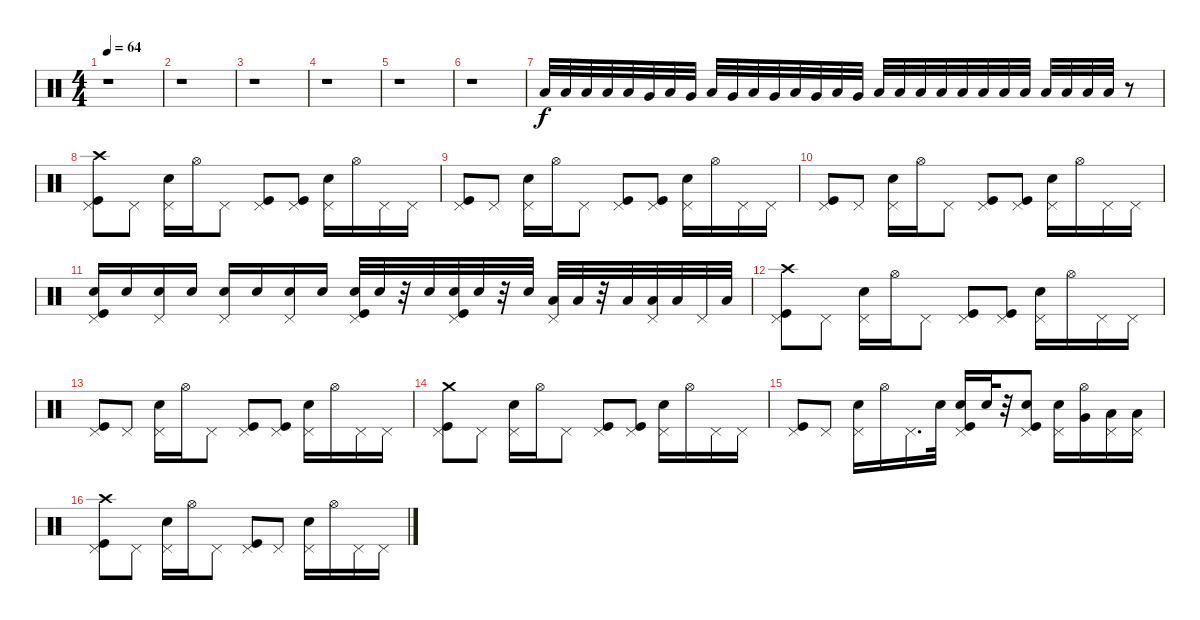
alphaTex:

\track "" {instrument percussion}
\staff {score}
\articulation defaults
\ts (4 4)
\tempo 64
\clef neutral
\ks c
r.1{dy f} |
r.1 |
r.1 |
r.1 |
r.1 |
r.1 |
"Low Floor Tom (hit)".32 "Low Floor Tom (hit)".32 "Low Floor Tom (hit)".32 "Low Floor Tom (hit)".32 "Low Floor Tom (hit)".32 "Very Low Tom (hit)".32 "Low Floor Tom (hit)".32 "Very Low Tom (hit)".32 "Low Floor Tom (hit)".32 "Very Low Tom (hit)".32 "Low Floor Tom (hit)".32 "Very Low Tom (hit)".32 "Low Floor Tom (hit)".32 "Very Low Tom (hit)".32 "Low Floor Tom (hit)".32 "Very Low Tom (hit)".32 "Low Floor Tom (hit)".32 "Low Tom (hit)".32 "Low Floor Tom (hit)".32 "Low Tom (hit)".32 "Low Floor Tom (hit)".32 "Low Tom (hit)".32 "Low Floor Tom (hit)".32 "Low Tom (hit)".32 "Low Floor Tom (hit)".32 "Low Tom (hit)".32 "Low Floor Tom (hit)".32 "Low Tom (hit)".32 r.8 |
("Pedal Hi-Hat (hit)" "Kick (hit)" "Crash high (hit)").8 "Pedal Hi-Hat (hit)".8 ("Pedal Hi-Hat (hit)" "Snare (hit) 2").16 "Hi-Hat (open)".16 "Pedal Hi-Hat (hit)".8 ("Pedal Hi-Hat (hit)" "Kick (hit)").8 ("Kick (hit)" "Pedal Hi-Hat (hit)").8 ("Pedal Hi-Hat (hit)" "Snare (hit) 2").16 "Hi-Hat (open)".16 "Pedal Hi-Hat (hit)".16 "Pedal Hi-Hat (hit)".16 |
("Kick (hit)" "Pedal Hi-Hat (hit)").8 "Pedal Hi-Hat (hit)".8 ("Snare (hit) 2" "Pedal Hi-Hat (hit)").16 "Hi-Hat (open)".16 "Pedal Hi-Hat (hit)".8 ("Kick (hit)" "Pedal Hi-Hat (hit)").8 ("Kick (hit)" "Pedal Hi-Hat (hit)").8 ("Snare (hit) 2" "Pedal Hi-Hat (hit)").16 "Hi-Hat (open)".16 "Pedal Hi-Hat (hit)".16 "Pedal Hi-Hat (hit)".16 |
("Kick (hit)" "Pedal Hi-Hat (hit)").8 "Pedal Hi-Hat (hit)".8 ("Snare (hit) 2" "Pedal Hi-Hat (hit)").16 "Hi-Hat (open)".16 "Pedal Hi-Hat (hit)".8 ("Kick (hit)" "Pedal Hi-Hat (hit)").8 ("Kick (hit)" "Pedal Hi-Hat (hit)").8 ("Snare (hit) 2" "Pedal Hi-Hat (hit)").16 "Hi-Hat (open)".16 "Pedal Hi-Hat (hit)".16 "Pedal Hi-Hat (hit)".16 |
("Snare (hit) 2" "Kick (hit)" "Pedal Hi-Hat (hit)").16 "Snare (hit) 2".16 ("Snare (hit) 2" "Pedal Hi-Hat (hit)").16 "Snare (hit) 2".16 ("Snare (hit) 2" "Pedal Hi-Hat (hit)").16 "Snare (hit) 2".16 ("Snare (hit) 2" "Pedal Hi-Hat (hit)").16 "Snare (hit) 2".16 ("Snare (hit) 2" "Kick (hit)" "Pedal Hi-Hat (hit)").32 "Snare (hit) 2".32 r.32 "Snare (hit) 2".32 ("Snare (hit) 2" "Kick (hit)" "Pedal Hi-Hat (hit)").32 "Snare (hit) 2".32 r.32 "Snare (hit) 2".32 ("Low Tom (hit)" "Pedal Hi-Hat (hit)").32 "Low Tom (hit)".32 r.32 "Low Tom (hit)".32 ("Low Tom (hit)" "Pedal Hi-Hat (hit)").32 "Low Tom (hit)".32 "Pedal Hi-Hat (hit)".32 "Low Tom (hit)".32 |
("Crash high (hit)" "Kick (hit)" "Pedal Hi-Hat (hit)").8 "Pedal Hi-Hat (hit)".8 ("Snare (hit) 2" "Pedal Hi-Hat (hit)").16 "Hi-Hat (open)".16 "Pedal Hi-Hat (hit)".8 ("Kick (hit)" "Pedal Hi-Hat (hit)").8 ("Kick (hit)" "Pedal Hi-Hat (hit)").8 ("Snare (hit) 2" "Pedal Hi-Hat (hit)").16 "Hi-Hat (open)".16 "Pedal Hi-Hat (hit)".16 "Pedal Hi-Hat (hit)".16 |
("Kick (hit)" "Pedal Hi-Hat (hit)").8 "Pedal Hi-Hat (hit)".8 ("Snare (hit) 2" "Pedal Hi-Hat (hit)").16 "Hi-Hat (open)".16 "Pedal Hi-Hat (hit)".8 ("Kick (hit)" "Pedal Hi-Hat (hit)").8 ("Kick (hit)" "Pedal Hi-Hat (hit)").8 ("Snare (hit) 2" "Pedal Hi-Hat (hit)").16 "Hi-Hat (open)".16 "Pedal Hi-Hat (hit)".16 "Pedal Hi-Hat (hit)".16 |
("Crash medium (hit)" "Kick (hit)" "Pedal Hi-Hat (hit)").8 "Pedal Hi-Hat (hit)".8 ("Snare (hit) 2" "Pedal Hi-Hat (hit)").16 "Hi-Hat (open)".16 "Pedal Hi-Hat (hit)".8 ("Kick (hit)" "Pedal Hi-Hat (hit)").8 ("Kick (hit)" "Pedal Hi-Hat (hit)").8 ("Snare (hit) 2" "Pedal Hi-Hat (hit)").16 "Hi-Hat (open)".16 "Pedal Hi-Hat (hit)".16 "Pedal Hi-Hat (hit)".16 |
("Kick (hit)" "Pedal Hi-Hat (hit)").8 "Pedal Hi-Hat (hit)".8 ("Snare (hit) 2" "Pedal Hi-Hat (hit)").16 "Hi-Hat (open)".16 "Pedal Hi-Hat (hit)".16{d} "Snare (hit) 2".32 ("Snare (hit) 2" "Pedal Hi-Hat (hit)" "Kick (hit)").16 "Snare (hit) 2".32 r.32 ("Snare (hit) 2" "Kick (hit)" "Pedal Hi-Hat (hit)").8 ("Snare (hit) 2" "Pedal Hi-Hat (hit)").16 ("Very Low Tom (hit)" "Hi-Hat (open)").16 ("Low Tom (hit)" "Pedal Hi-Hat (hit)").16 ("Low Floor Tom (hit)" "Pedal Hi-Hat (hit)").16 |
("Crash high (hit)" "Kick (hit)" "Pedal Hi-Hat (hit)").8 "Pedal Hi-Hat (hit)".8 ("Snare (hit) 2" "Pedal Hi-Hat (hit)").16 "Hi-Hat (open)".16 "Pedal Hi-Hat (hit)".8 ("Kick (hit)" "Pedal Hi-Hat (hit)").8 "Pedal Hi-Hat (hit)".8 ("Snare (hit) 2" "Pedal Hi-Hat (hit)").16 "Hi-Hat (open)".16 "Pedal Hi-Hat (hit)".16 "Pedal Hi-Hat (hit)".16
